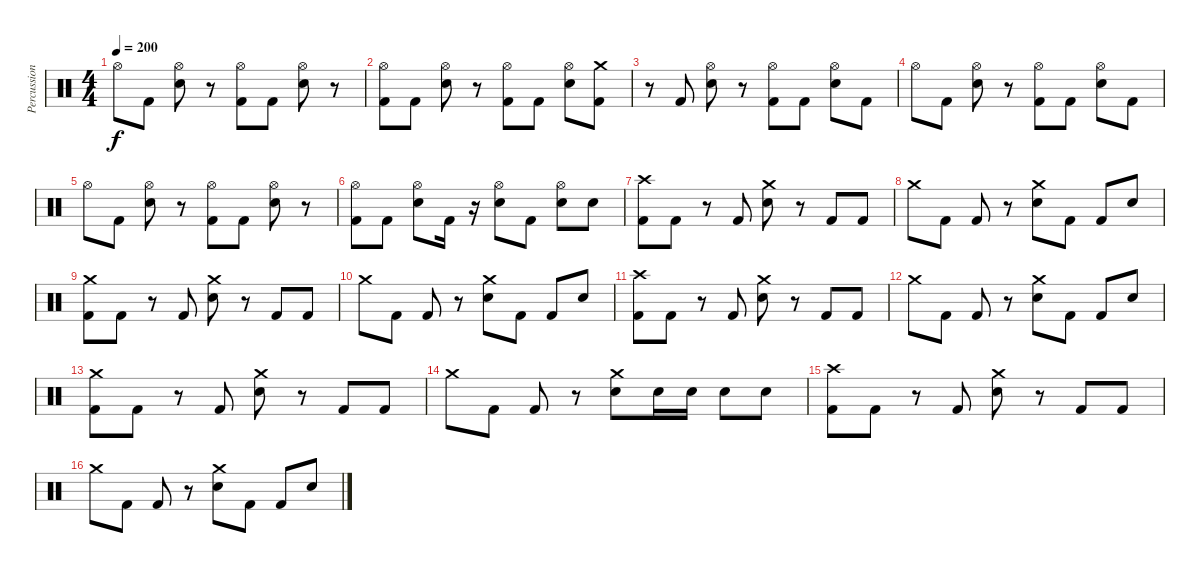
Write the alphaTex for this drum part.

\track ("Percussion" "Percussion") {instrument percussion}
\staff {score}
\articulation defaults
\ts (4 4)
\tempo 200
\clef neutral
\ks c "Hi-Hat (open)".8{dy f} "Kick (hit) 2".8
("Hi-Hat (open)" "Snare (hit) 2").8 r.8 ("Hi-Hat (open)" "Kick (hit) 2").8 "Kick (hit) 2".8 ("Hi-Hat (open)" "Snare (hit) 2").8 r.8 |
("Hi-Hat (open)" "Kick (hit) 2").8 "Kick (hit) 2".8 ("Hi-Hat (open)" "Snare (hit) 2").8 r.8 ("Hi-Hat (open)" "Kick (hit) 2").8 "Kick (hit) 2".8 ("Hi-Hat (open)" "Snare (hit) 2").8 ("Crash medium (hit)" "Kick (hit) 2").8 |
r.8 "Kick (hit) 2".8 ("Hi-Hat (open)" "Snare (hit) 2").8 r.8 ("Hi-Hat (open)" "Kick (hit) 2").8 "Kick (hit) 2".8 ("Hi-Hat (open)" "Snare (hit) 2").8 "Kick (hit) 2".8 |
"Hi-Hat (open)".8 "Kick (hit) 2".8 ("Hi-Hat (open)" "Snare (hit) 2").8 r.8 ("Hi-Hat (open)" "Kick (hit) 2").8 "Kick (hit) 2".8 ("Hi-Hat (open)" "Snare (hit) 2").8 "Kick (hit) 2".8 |
"Hi-Hat (open)".8 "Kick (hit) 2".8 ("Hi-Hat (open)" "Snare (hit) 2").8 r.8 ("Hi-Hat (open)" "Kick (hit) 2").8 "Kick (hit) 2".8 ("Hi-Hat (open)" "Snare (hit) 2").8 r.8 |
("Hi-Hat (open)" "Kick (hit) 2").8 "Kick (hit) 2".8 ("Hi-Hat (open)" "Snare (hit) 2").8 "Kick (hit) 2".16 r.16 ("Hi-Hat (open)" "Snare (hit) 2").8 "Kick (hit) 2".8 ("Hi-Hat (open)" "Snare (hit) 2").8 "Snare (hit) 2".8 |
("Crash high (hit)" "Kick (hit) 2").8 "Kick (hit) 2".8 r.8 "Kick (hit) 2".8 ("Crash medium (hit)" "Snare (hit) 2").8 r.8 "Kick (hit) 2".8 "Kick (hit) 2".8 |
"Crash medium (hit)".8 "Kick (hit) 2".8 "Kick (hit) 2".8 r.8 ("Crash medium (hit)" "Snare (hit) 2").8 "Kick (hit) 2".8 "Kick (hit) 2".8 "Snare (hit) 2".8 |
("Crash medium (hit)" "Kick (hit) 2").8 "Kick (hit) 2".8 r.8 "Kick (hit) 2".8 ("Crash medium (hit)" "Snare (hit) 2").8 r.8 "Kick (hit) 2".8 "Kick (hit) 2".8 |
"Crash medium (hit)".8 "Kick (hit) 2".8 "Kick (hit) 2".8 r.8 ("Crash medium (hit)" "Snare (hit) 2").8 "Kick (hit) 2".8 "Kick (hit) 2".8 "Snare (hit) 2".8 |
("Crash high (hit)" "Kick (hit) 2").8 "Kick (hit) 2".8 r.8 "Kick (hit) 2".8 ("Crash medium (hit)" "Snare (hit) 2").8 r.8 "Kick (hit) 2".8 "Kick (hit) 2".8 |
"Crash medium (hit)".8 "Kick (hit) 2".8 "Kick (hit) 2".8 r.8 ("Crash medium (hit)" "Snare (hit) 2").8 "Kick (hit) 2".8 "Kick (hit) 2".8 "Snare (hit) 2".8 |
("Crash medium (hit)" "Kick (hit) 2").8 "Kick (hit) 2".8 r.8 "Kick (hit) 2".8 ("Crash medium (hit)" "Snare (hit) 2").8 r.8 "Kick (hit) 2".8 "Kick (hit) 2".8 |
"Crash medium (hit)".8 "Kick (hit) 2".8 "Kick (hit) 2".8 r.8 ("Crash medium (hit)" "Snare (hit) 2").8 "Snare (hit) 2".16 "Snare (hit) 2".16 "Snare (hit) 2".8 "Snare (hit) 2".8 |
("Crash high (hit)" "Kick (hit) 2").8 "Kick (hit) 2".8 r.8 "Kick (hit) 2".8 ("Crash medium (hit)" "Snare (hit) 2").8 r.8 "Kick (hit) 2".8 "Kick (hit) 2".8 |
"Crash medium (hit)".8 "Kick (hit) 2".8 "Kick (hit) 2".8 r.8 ("Crash medium (hit)" "Snare (hit) 2").8 "Kick (hit) 2".8 "Kick (hit) 2".8 "Snare (hit) 2".8
